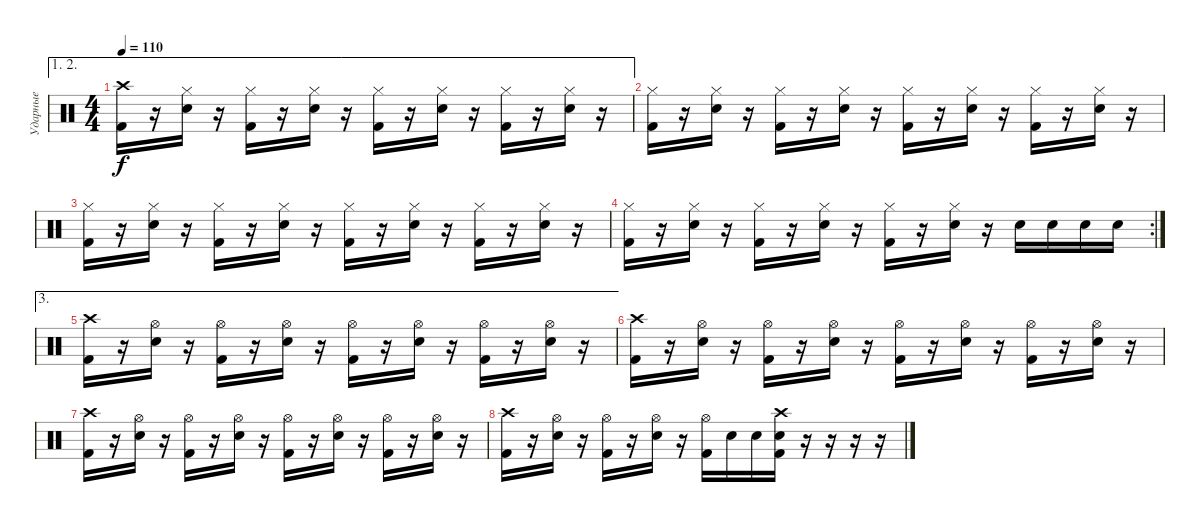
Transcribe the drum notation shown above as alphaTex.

\track ("Ударные" "Ударные") {instrument percussion}
\staff {score}
\articulation defaults
\ae (1 2)
\ts (4 4)
\tempo 110
\clef neutral
\ks c
("Crash high (hit)" "Kick (hit) 2").16{dy f} r.16 ("Hi-Hat (closed)" "Snare (hit) 2").16 r.16 ("Hi-Hat (closed)" "Kick (hit) 2").16 r.16 ("Hi-Hat (closed)" "Snare (hit) 2").16 r.16 ("Hi-Hat (closed)" "Kick (hit) 2").16 r.16 ("Hi-Hat (closed)" "Snare (hit) 2").16 r.16 ("Hi-Hat (closed)" "Kick (hit) 2").16 r.16 ("Hi-Hat (closed)" "Snare (hit) 2").16 r.16 |
("Hi-Hat (closed)" "Kick (hit) 2").16 r.16 ("Hi-Hat (closed)" "Snare (hit) 2").16 r.16 ("Hi-Hat (closed)" "Kick (hit) 2").16 r.16 ("Hi-Hat (closed)" "Snare (hit) 2").16 r.16 ("Hi-Hat (closed)" "Kick (hit) 2").16 r.16 ("Hi-Hat (closed)" "Snare (hit) 2").16 r.16 ("Hi-Hat (closed)" "Kick (hit) 2").16 r.16 ("Hi-Hat (closed)" "Snare (hit) 2").16 r.16 |
("Hi-Hat (closed)" "Kick (hit) 2").16 r.16 ("Hi-Hat (closed)" "Snare (hit) 2").16 r.16 ("Hi-Hat (closed)" "Kick (hit) 2").16 r.16 ("Hi-Hat (closed)" "Snare (hit) 2").16 r.16 ("Hi-Hat (closed)" "Kick (hit) 2").16 r.16 ("Hi-Hat (closed)" "Snare (hit) 2").16 r.16 ("Hi-Hat (closed)" "Kick (hit) 2").16 r.16 ("Hi-Hat (closed)" "Snare (hit) 2").16 r.16 |
\rc 2
("Hi-Hat (closed)" "Kick (hit) 2").16 r.16 ("Hi-Hat (closed)" "Snare (hit) 2").16 r.16 ("Hi-Hat (closed)" "Kick (hit) 2").16 r.16 ("Hi-Hat (closed)" "Snare (hit) 2").16 r.16 ("Hi-Hat (closed)" "Kick (hit) 2").16 r.16 ("Hi-Hat (closed)" "Snare (hit) 2").16 r.16 "Snare (hit) 2".16 "Snare (hit) 2".16 "Snare (hit) 2".16 "Snare (hit) 2".16 |
\ae 3
("Crash high (hit)" "Kick (hit) 2").16 r.16 ("Hi-Hat (open)" "Snare (hit) 2").16 r.16 ("Hi-Hat (open)" "Kick (hit) 2").16 r.16 ("Hi-Hat (open)" "Snare (hit) 2").16 r.16 ("Hi-Hat (open)" "Kick (hit) 2").16 r.16 ("Hi-Hat (open)" "Snare (hit) 2").16 r.16 ("Hi-Hat (open)" "Kick (hit) 2").16 r.16 ("Hi-Hat (open)" "Snare (hit) 2").16 r.16 |
("Crash high (hit)" "Kick (hit) 2").16 r.16 ("Hi-Hat (open)" "Snare (hit) 2").16 r.16 ("Hi-Hat (open)" "Kick (hit) 2").16 r.16 ("Hi-Hat (open)" "Snare (hit) 2").16 r.16 ("Hi-Hat (open)" "Kick (hit) 2").16 r.16 ("Hi-Hat (open)" "Snare (hit) 2").16 r.16 ("Hi-Hat (open)" "Kick (hit) 2").16 r.16 ("Hi-Hat (open)" "Snare (hit) 2").16 r.16 |
("Crash high (hit)" "Kick (hit) 2").16 r.16 ("Hi-Hat (open)" "Snare (hit) 2").16 r.16 ("Hi-Hat (open)" "Kick (hit) 2").16 r.16 ("Hi-Hat (open)" "Snare (hit) 2").16 r.16 ("Hi-Hat (open)" "Kick (hit) 2").16 r.16 ("Hi-Hat (open)" "Snare (hit) 2").16 r.16 ("Hi-Hat (open)" "Kick (hit) 2").16 r.16 ("Hi-Hat (open)" "Snare (hit) 2").16 r.16 |
("Crash high (hit)" "Kick (hit) 2").16 r.16 ("Hi-Hat (open)" "Snare (hit) 2").16 r.16 ("Hi-Hat (open)" "Kick (hit) 2").16 r.16 ("Hi-Hat (open)" "Snare (hit) 2").16 r.16 ("Hi-Hat (open)" "Kick (hit) 2").16 "Snare (hit) 2".16 "Snare (hit) 2".16 ("Snare (hit) 2" "Kick (hit) 2" "Crash high (hit)").16 r.16 r.16 r.16 r.16
